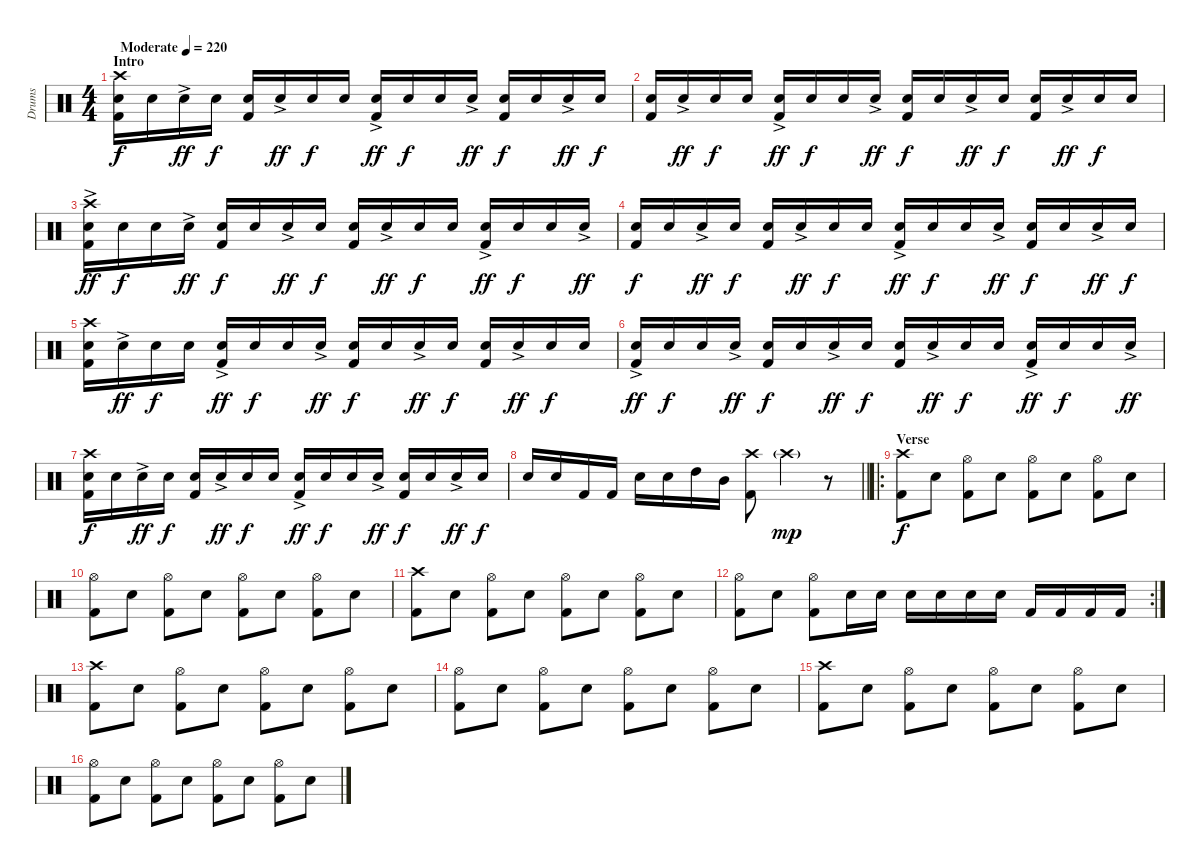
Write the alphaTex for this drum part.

\track ("Drums" "Drums") {instrument percussion}
\staff {score}
\articulation defaults
\ts (4 4)
\section ("" "Intro")
\tempo (220 "Moderate")
\clef neutral
\ks c
("Kick (hit) 2" "Electric Snare (hit)" "Crash high (hit)").16{dy f volume 5} "Electric Snare (hit)".16 "Electric Snare (hit)"{ac}.16{dy ff} "Electric Snare (hit)".16{dy f} ("Kick (hit) 2" "Electric Snare (hit)").16 "Electric Snare (hit)"{ac}.16{dy ff} "Electric Snare (hit)".16{dy f} "Electric Snare (hit)".16 ("Kick (hit) 2" "Electric Snare (hit)"{ac}).16{dy ff} "Electric Snare (hit)".16{dy f} "Electric Snare (hit)".16 "Electric Snare (hit)"{ac}.16{dy ff} ("Kick (hit) 2" "Electric Snare (hit)").16{dy f} "Electric Snare (hit)".16 "Electric Snare (hit)"{ac}.16{dy ff} "Electric Snare (hit)".16{dy f} |
("Kick (hit) 2" "Electric Snare (hit)").16 "Electric Snare (hit)"{ac}.16{dy ff} "Electric Snare (hit)".16{dy f} "Electric Snare (hit)".16 ("Kick (hit) 2" "Electric Snare (hit)"{ac}).16{dy ff} "Electric Snare (hit)".16{dy f} "Electric Snare (hit)".16 "Electric Snare (hit)"{ac}.16{dy ff} ("Kick (hit) 2" "Electric Snare (hit)").16{dy f} "Electric Snare (hit)".16 "Electric Snare (hit)"{ac}.16{dy ff} "Electric Snare (hit)".16{dy f} ("Kick (hit) 2" "Electric Snare (hit)").16 "Electric Snare (hit)"{ac}.16{dy ff} "Electric Snare (hit)".16{dy f} "Electric Snare (hit)".16 |
("Kick (hit) 2" "Electric Snare (hit)"{ac} "Crash high (hit)").16{dy ff} "Electric Snare (hit)".16{dy f} "Electric Snare (hit)".16 "Electric Snare (hit)"{ac}.16{dy ff} ("Kick (hit) 2" "Electric Snare (hit)").16{dy f} "Electric Snare (hit)".16 "Electric Snare (hit)"{ac}.16{dy ff} "Electric Snare (hit)".16{dy f} ("Kick (hit) 2" "Electric Snare (hit)").16 "Electric Snare (hit)"{ac}.16{dy ff} "Electric Snare (hit)".16{dy f} "Electric Snare (hit)".16 ("Kick (hit) 2" "Electric Snare (hit)"{ac}).16{dy ff} "Electric Snare (hit)".16{dy f} "Electric Snare (hit)".16 "Electric Snare (hit)"{ac}.16{dy ff} |
("Kick (hit) 2" "Electric Snare (hit)").16{dy f} "Electric Snare (hit)".16 "Electric Snare (hit)"{ac}.16{dy ff} "Electric Snare (hit)".16{dy f} ("Kick (hit) 2" "Electric Snare (hit)").16 "Electric Snare (hit)"{ac}.16{dy ff} "Electric Snare (hit)".16{dy f} "Electric Snare (hit)".16 ("Kick (hit) 2" "Electric Snare (hit)"{ac}).16{dy ff} "Electric Snare (hit)".16{dy f} "Electric Snare (hit)".16 "Electric Snare (hit)"{ac}.16{dy ff} ("Kick (hit) 2" "Electric Snare (hit)").16{dy f} "Electric Snare (hit)".16 "Electric Snare (hit)"{ac}.16{dy ff} "Electric Snare (hit)".16{dy f} |
("Kick (hit) 2" "Electric Snare (hit)" "Crash high (hit)").16 "Electric Snare (hit)"{ac}.16{dy ff} "Electric Snare (hit)".16{dy f} "Electric Snare (hit)".16 ("Kick (hit) 2" "Electric Snare (hit)"{ac}).16{dy ff} "Electric Snare (hit)".16{dy f} "Electric Snare (hit)".16 "Electric Snare (hit)"{ac}.16{dy ff} ("Kick (hit) 2" "Electric Snare (hit)").16{dy f} "Electric Snare (hit)".16 "Electric Snare (hit)"{ac}.16{dy ff} "Electric Snare (hit)".16{dy f} ("Kick (hit) 2" "Electric Snare (hit)").16 "Electric Snare (hit)"{ac}.16{dy ff} "Electric Snare (hit)".16{dy f} "Electric Snare (hit)".16 |
("Kick (hit) 2" "Electric Snare (hit)"{ac}).16{dy ff} "Electric Snare (hit)".16{dy f} "Electric Snare (hit)".16 "Electric Snare (hit)"{ac}.16{dy ff} ("Kick (hit) 2" "Electric Snare (hit)").16{dy f} "Electric Snare (hit)".16 "Electric Snare (hit)"{ac}.16{dy ff} "Electric Snare (hit)".16{dy f} ("Kick (hit) 2" "Electric Snare (hit)").16 "Electric Snare (hit)"{ac}.16{dy ff} "Electric Snare (hit)".16{dy f} "Electric Snare (hit)".16 ("Kick (hit) 2" "Electric Snare (hit)"{ac}).16{dy ff} "Electric Snare (hit)".16{dy f} "Electric Snare (hit)".16 "Electric Snare (hit)"{ac}.16{dy ff} |
("Kick (hit) 2" "Electric Snare (hit)" "Crash high (hit)").16{dy f} "Electric Snare (hit)".16 "Electric Snare (hit)"{ac}.16{dy ff} "Electric Snare (hit)".16{dy f} ("Kick (hit) 2" "Electric Snare (hit)").16 "Electric Snare (hit)"{ac}.16{dy ff} "Electric Snare (hit)".16{dy f} "Electric Snare (hit)".16 ("Kick (hit) 2" "Electric Snare (hit)"{ac}).16{dy ff} "Electric Snare (hit)".16{dy f} "Electric Snare (hit)".16 "Electric Snare (hit)"{ac}.16{dy ff} ("Kick (hit) 2" "Electric Snare (hit)").16{dy f} "Electric Snare (hit)".16 "Electric Snare (hit)"{ac}.16{dy ff} "Electric Snare (hit)".16{dy f} |
\barLineRight lightlight "Electric Snare (hit)".16 "Electric Snare (hit)".16 "Kick (hit) 2".16 "Kick (hit) 2".16 "Electric Snare (hit)".16 "Electric Snare (hit)".16 "High Tom (hit)".16 "Mid Tom (hit)".16
("Kick (hit) 2" "Crash high (hit)").8{volume 7} "Crash high (hit)"{g}.4{dy mp} r.8 |
\ro
\section ("" "Verse")
("Kick (hit) 2" "Crash high (hit)").8{dy f} "Electric Snare (hit)".8 ("Kick (hit) 2" "Hi-Hat (open)").8 "Electric Snare (hit)".8 ("Kick (hit) 2" "Hi-Hat (open)").8 "Electric Snare (hit)".8 ("Kick (hit) 2" "Hi-Hat (open)").8 "Electric Snare (hit)".8 |
("Kick (hit) 2" "Hi-Hat (open)").8 "Electric Snare (hit)".8 ("Kick (hit) 2" "Hi-Hat (open)").8 "Electric Snare (hit)".8 ("Kick (hit) 2" "Hi-Hat (open)").8 "Electric Snare (hit)".8 ("Kick (hit) 2" "Hi-Hat (open)").8 "Electric Snare (hit)".8 |
("Kick (hit) 2" "Crash high (hit)").8 "Electric Snare (hit)".8 ("Kick (hit) 2" "Hi-Hat (open)").8 "Electric Snare (hit)".8 ("Kick (hit) 2" "Hi-Hat (open)").8 "Electric Snare (hit)".8 ("Kick (hit) 2" "Hi-Hat (open)").8 "Electric Snare (hit)".8 |
\rc 2
("Kick (hit) 2" "Hi-Hat (open)").8 "Electric Snare (hit)".8 ("Kick (hit) 2" "Hi-Hat (open)").8 "Electric Snare (hit)".16 "Electric Snare (hit)".16 "Electric Snare (hit)".16 "Electric Snare (hit)".16 "Electric Snare (hit)".16 "Electric Snare (hit)".16 "Kick (hit) 2".16 "Kick (hit) 2".16 "Kick (hit) 2".16 "Kick (hit) 2".16 |
("Kick (hit) 2" "Crash high (hit)").8 "Electric Snare (hit)".8 ("Kick (hit) 2" "Hi-Hat (open)").8 "Electric Snare (hit)".8 ("Kick (hit) 2" "Hi-Hat (open)").8 "Electric Snare (hit)".8 ("Kick (hit) 2" "Hi-Hat (open)").8 "Electric Snare (hit)".8 |
("Kick (hit) 2" "Hi-Hat (open)").8 "Electric Snare (hit)".8 ("Kick (hit) 2" "Hi-Hat (open)").8 "Electric Snare (hit)".8 ("Kick (hit) 2" "Hi-Hat (open)").8 "Electric Snare (hit)".8 ("Kick (hit) 2" "Hi-Hat (open)").8 "Electric Snare (hit)".8 |
("Kick (hit) 2" "Crash high (hit)").8 "Electric Snare (hit)".8 ("Kick (hit) 2" "Hi-Hat (open)").8 "Electric Snare (hit)".8 ("Kick (hit) 2" "Hi-Hat (open)").8 "Electric Snare (hit)".8 ("Kick (hit) 2" "Hi-Hat (open)").8 "Electric Snare (hit)".8 |
("Kick (hit) 2" "Hi-Hat (open)").8 "Electric Snare (hit)".8 ("Kick (hit) 2" "Hi-Hat (open)").8 "Electric Snare (hit)".8 ("Kick (hit) 2" "Hi-Hat (open)").8 "Electric Snare (hit)".8 ("Kick (hit) 2" "Hi-Hat (open)").8 "Electric Snare (hit)".8
